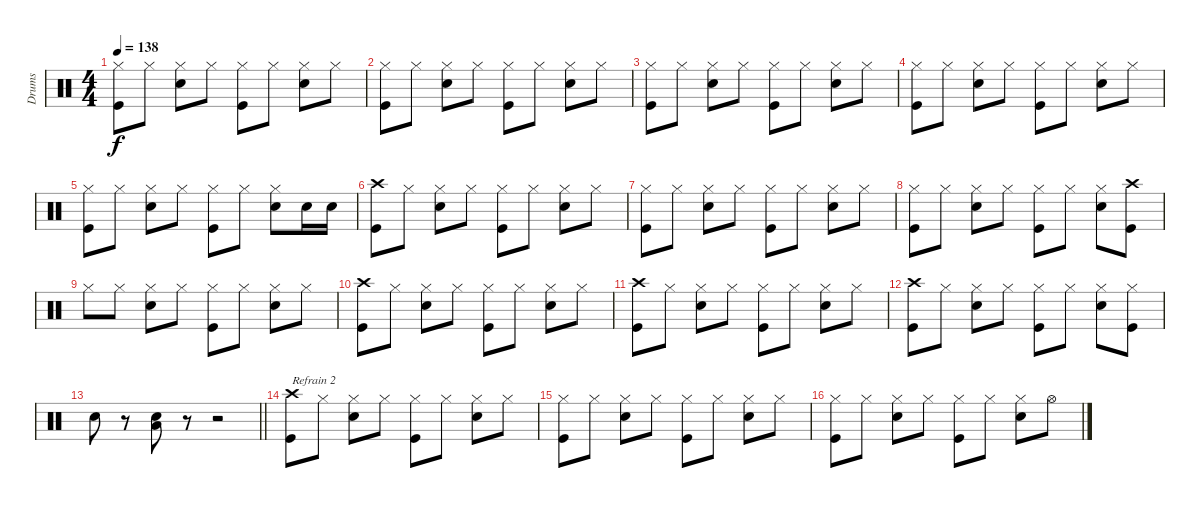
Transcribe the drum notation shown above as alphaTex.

\track ("Drums" "Drums") {instrument percussion}
\staff {score}
\articulation defaults
\ts (4 4)
\tempo 138
\clef neutral
\ks c
("Kick (hit)" "Hi-Hat (closed)").8{dy f} "Hi-Hat (closed)".8 ("Electric Snare (hit)" "Hi-Hat (closed)").8 "Hi-Hat (closed)".8 ("Kick (hit)" "Hi-Hat (closed)").8 "Hi-Hat (closed)".8 ("Electric Snare (hit)" "Hi-Hat (closed)").8 "Hi-Hat (closed)".8 |
("Kick (hit)" "Hi-Hat (closed)").8 "Hi-Hat (closed)".8 ("Electric Snare (hit)" "Hi-Hat (closed)").8 "Hi-Hat (closed)".8 ("Kick (hit)" "Hi-Hat (closed)").8 "Hi-Hat (closed)".8 ("Electric Snare (hit)" "Hi-Hat (closed)").8 "Hi-Hat (closed)".8 |
("Kick (hit)" "Hi-Hat (closed)").8 "Hi-Hat (closed)".8 ("Electric Snare (hit)" "Hi-Hat (closed)").8 "Hi-Hat (closed)".8 ("Kick (hit)" "Hi-Hat (closed)").8 "Hi-Hat (closed)".8 ("Electric Snare (hit)" "Hi-Hat (closed)").8 "Hi-Hat (closed)".8 |
("Kick (hit)" "Hi-Hat (closed)").8 "Hi-Hat (closed)".8 ("Electric Snare (hit)" "Hi-Hat (closed)").8 "Hi-Hat (closed)".8 ("Kick (hit)" "Hi-Hat (closed)").8 "Hi-Hat (closed)".8 ("Electric Snare (hit)" "Hi-Hat (closed)").8 "Hi-Hat (closed)".8 |
("Kick (hit)" "Hi-Hat (closed)").8 "Hi-Hat (closed)".8 ("Electric Snare (hit)" "Hi-Hat (closed)").8 "Hi-Hat (closed)".8 ("Kick (hit)" "Hi-Hat (closed)").8 "Hi-Hat (closed)".8 ("Electric Snare (hit)" "Hi-Hat (closed)").8 "Electric Snare (hit)".16 "Electric Snare (hit)".16 |
("Kick (hit)" "Crash high (hit)").8 "Hi-Hat (closed)".8 ("Electric Snare (hit)" "Hi-Hat (closed)").8 "Hi-Hat (closed)".8 ("Kick (hit)" "Hi-Hat (closed)").8 "Hi-Hat (closed)".8 ("Electric Snare (hit)" "Hi-Hat (closed)").8 "Hi-Hat (closed)".8 |
("Kick (hit)" "Hi-Hat (closed)").8 "Hi-Hat (closed)".8 ("Electric Snare (hit)" "Hi-Hat (closed)").8 "Hi-Hat (closed)".8 ("Kick (hit)" "Hi-Hat (closed)").8 "Hi-Hat (closed)".8 ("Electric Snare (hit)" "Hi-Hat (closed)").8 "Hi-Hat (closed)".8 |
("Kick (hit)" "Hi-Hat (closed)").8 "Hi-Hat (closed)".8 ("Electric Snare (hit)" "Hi-Hat (closed)").8 "Hi-Hat (closed)".8 ("Kick (hit)" "Hi-Hat (closed)").8 "Hi-Hat (closed)".8 ("Electric Snare (hit)" "Hi-Hat (closed)").8 ("Kick (hit)" "Crash high (hit)").8 |
"Hi-Hat (closed)".8 "Hi-Hat (closed)".8 ("Electric Snare (hit)" "Hi-Hat (closed)").8 "Hi-Hat (closed)".8 ("Kick (hit)" "Hi-Hat (closed)").8 "Hi-Hat (closed)".8 ("Electric Snare (hit)" "Hi-Hat (closed)").8 "Hi-Hat (closed)".8 |
("Kick (hit)" "Crash high (hit)").8 "Hi-Hat (closed)".8 ("Electric Snare (hit)" "Hi-Hat (closed)").8 "Hi-Hat (closed)".8 ("Kick (hit)" "Hi-Hat (closed)").8 "Hi-Hat (closed)".8 ("Electric Snare (hit)" "Hi-Hat (closed)").8 "Hi-Hat (closed)".8 |
("Kick (hit)" "Crash high (hit)").8 "Hi-Hat (closed)".8 ("Electric Snare (hit)" "Hi-Hat (closed)").8 "Hi-Hat (closed)".8 ("Kick (hit)" "Hi-Hat (closed)").8 "Hi-Hat (closed)".8 ("Electric Snare (hit)" "Hi-Hat (closed)").8 "Hi-Hat (closed)".8 |
("Kick (hit)" "Crash high (hit)").8 "Hi-Hat (closed)".8 ("Electric Snare (hit)" "Hi-Hat (closed)").8 "Hi-Hat (closed)".8 ("Kick (hit)" "Hi-Hat (closed)").8 "Hi-Hat (closed)".8 ("Electric Snare (hit)" "Hi-Hat (closed)").8 ("Kick (hit)" "Hi-Hat (closed)").8 |
\barLineRight lightlight "Electric Snare (hit)".8
r.8 ("Electric Snare (hit)" "Low Tom (hit)").8 r.8 r.2 |
("Kick (hit)" "Crash high (hit)").8{txt "Refrain 2"} "Hi-Hat (closed)".8 ("Electric Snare (hit)" "Hi-Hat (closed)").8 "Hi-Hat (closed)".8 ("Kick (hit)" "Hi-Hat (closed)").8 "Hi-Hat (closed)".8 ("Electric Snare (hit)" "Hi-Hat (closed)").8 "Hi-Hat (closed)".8 |
("Kick (hit)" "Hi-Hat (closed)").8 "Hi-Hat (closed)".8 ("Electric Snare (hit)" "Hi-Hat (closed)").8 "Hi-Hat (closed)".8 ("Kick (hit)" "Hi-Hat (closed)").8 "Hi-Hat (closed)".8 ("Electric Snare (hit)" "Hi-Hat (closed)").8 "Hi-Hat (closed)".8 |
("Kick (hit)" "Hi-Hat (closed)").8 "Hi-Hat (closed)".8 ("Electric Snare (hit)" "Hi-Hat (closed)").8 "Hi-Hat (closed)".8 ("Kick (hit)" "Hi-Hat (closed)").8 "Hi-Hat (closed)".8 ("Electric Snare (hit)" "Hi-Hat (closed)").8 "Hi-Hat (open)".8
